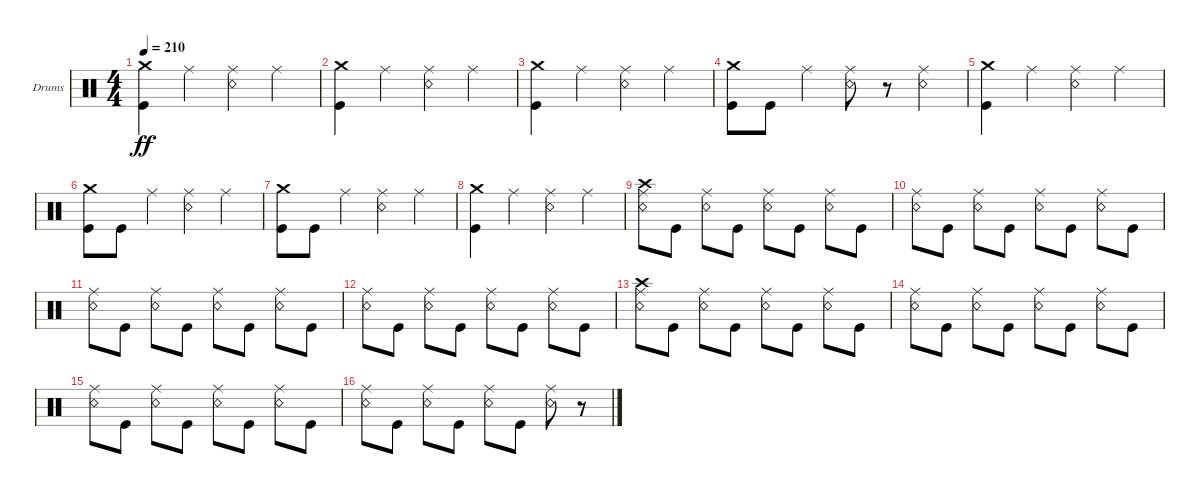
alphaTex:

\defaultSystemsLayout 4
\bracketExtendMode groupsimilarinstruments
\firstSystemTrackNameOrientation horizontal
\otherSystemsTrackNameOrientation horizontal
\track ("Drumkit" "Drums") {instrument percussion}
\staff {score}
\articulation defaults
\ts (4 4)
\tempo 210
\clef neutral
\ks c
("Kick (hit)" "Crash medium (hit)").4{dy ff} "Ride (middle)".4 ("Snare (rim shot)" "Ride (middle)").4 "Ride (middle)".4 |
("Kick (hit)" "Crash medium (hit)").4 "Ride (middle)".4 ("Snare (rim shot)" "Ride (middle)").4 "Ride (middle)".4 |
("Kick (hit)" "Crash medium (hit)").4 "Ride (middle)".4 ("Snare (rim shot)" "Ride (middle)").4 "Ride (middle)".4 |
("Kick (hit)" "Crash medium (hit)").8 "Kick (hit)".8 "Ride (middle)".4 ("Snare (rim shot)" "Ride (middle)").8 r.8 ("Snare (rim shot)" "Ride (middle)").4 |
("Kick (hit)" "Crash medium (hit)").4 "Ride (middle)".4 ("Snare (rim shot)" "Ride (middle)").4 "Ride (middle)".4 |
("Kick (hit)" "Crash medium (hit)").8 "Kick (hit)".8 "Ride (middle)".4 ("Snare (rim shot)" "Ride (middle)").4 "Ride (middle)".4 |
("Kick (hit)" "Crash medium (hit)").8 "Kick (hit)".8 "Ride (middle)".4 ("Snare (rim shot)" "Ride (middle)").4 "Ride (middle)".4 |
("Kick (hit)" "Crash medium (hit)").4 "Ride (middle)".4 ("Snare (rim shot)" "Ride (middle)").4 "Ride (middle)".4 |
("Snare (rim shot)" "Ride (middle)" "Crash high (hit)").8 "Kick (hit)".8 ("Snare (rim shot)" "Ride (middle)").8 "Kick (hit)".8 ("Snare (rim shot)" "Ride (middle)").8 "Kick (hit)".8 ("Snare (rim shot)" "Ride (middle)").8 "Kick (hit)".8 |
("Snare (rim shot)" "Ride (middle)").8 "Kick (hit)".8 ("Snare (rim shot)" "Ride (middle)").8 "Kick (hit)".8 ("Snare (rim shot)" "Ride (middle)").8 "Kick (hit)".8 ("Snare (rim shot)" "Ride (middle)").8 "Kick (hit)".8 |
("Snare (rim shot)" "Ride (middle)").8 "Kick (hit)".8 ("Snare (rim shot)" "Ride (middle)").8 "Kick (hit)".8 ("Snare (rim shot)" "Ride (middle)").8 "Kick (hit)".8 ("Snare (rim shot)" "Ride (middle)").8 "Kick (hit)".8 |
("Snare (rim shot)" "Ride (middle)").8 "Kick (hit)".8 ("Snare (rim shot)" "Ride (middle)").8 "Kick (hit)".8 ("Snare (rim shot)" "Ride (middle)").8 "Kick (hit)".8 ("Snare (rim shot)" "Ride (middle)").8 "Kick (hit)".8 |
("Snare (rim shot)" "Ride (middle)" "Crash high (hit)").8 "Kick (hit)".8 ("Snare (rim shot)" "Ride (middle)").8 "Kick (hit)".8 ("Snare (rim shot)" "Ride (middle)").8 "Kick (hit)".8 ("Snare (rim shot)" "Ride (middle)").8 "Kick (hit)".8 |
("Snare (rim shot)" "Ride (middle)").8 "Kick (hit)".8 ("Snare (rim shot)" "Ride (middle)").8 "Kick (hit)".8 ("Snare (rim shot)" "Ride (middle)").8 "Kick (hit)".8 ("Snare (rim shot)" "Ride (middle)").8 "Kick (hit)".8 |
("Snare (rim shot)" "Ride (middle)").8 "Kick (hit)".8 ("Snare (rim shot)" "Ride (middle)").8 "Kick (hit)".8 ("Snare (rim shot)" "Ride (middle)").8 "Kick (hit)".8 ("Snare (rim shot)" "Ride (middle)").8 "Kick (hit)".8 |
("Snare (rim shot)" "Ride (middle)").8 "Kick (hit)".8 ("Snare (rim shot)" "Ride (middle)").8 "Kick (hit)".8 ("Snare (rim shot)" "Ride (middle)").8 "Kick (hit)".8 ("Snare (rim shot)" "Ride (middle)").8 r.8
